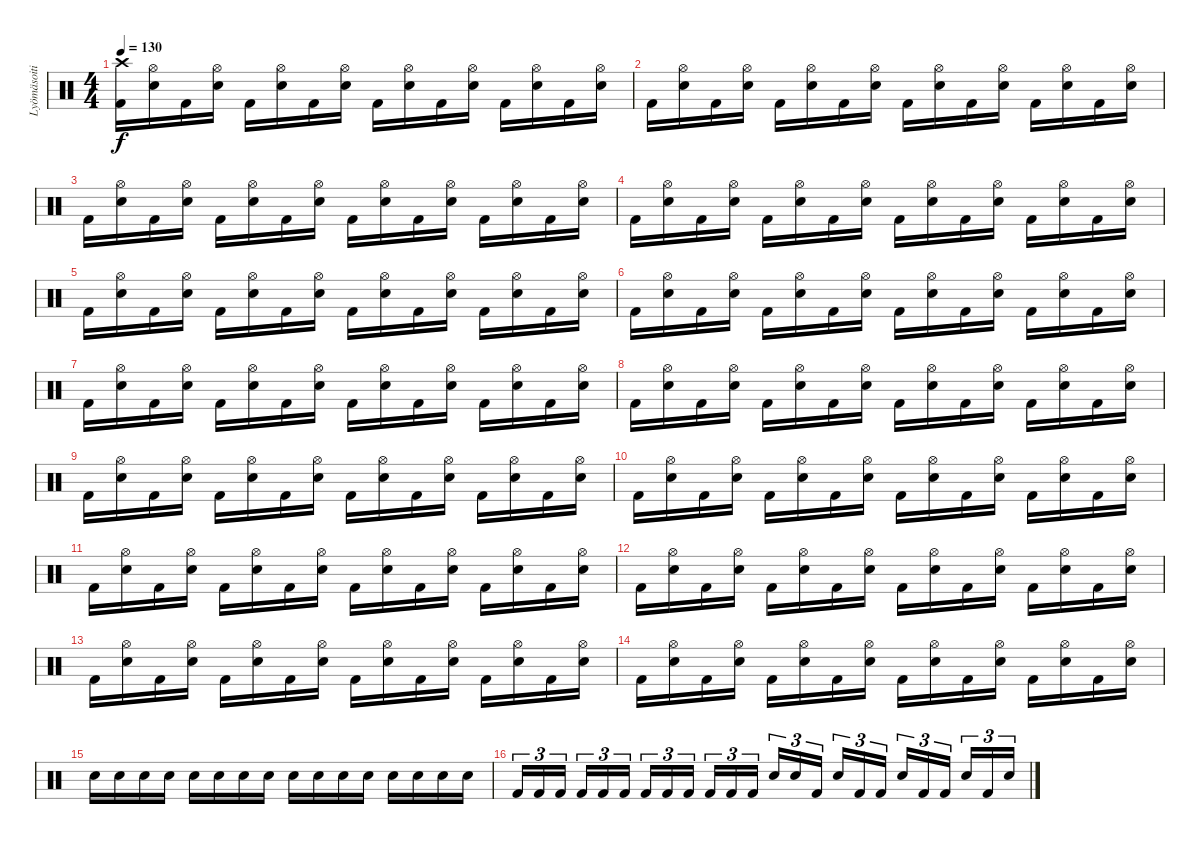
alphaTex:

\track ("Lyömäsoitin" "Lyömäsoiti") {instrument percussion}
\staff {score}
\articulation defaults
\ts (4 4)
\tempo 130
\clef neutral
\ks c
("Crash high (hit)" "Kick (hit) 2").16{dy f} ("Hi-Hat (open)" "Snare (hit) 2").16 "Kick (hit) 2".16 ("Hi-Hat (open)" "Snare (hit) 2").16 "Kick (hit) 2".16 ("Hi-Hat (open)" "Snare (hit) 2").16 "Kick (hit) 2".16 ("Hi-Hat (open)" "Snare (hit) 2").16 "Kick (hit) 2".16 ("Hi-Hat (open)" "Snare (hit) 2").16 "Kick (hit) 2".16 ("Hi-Hat (open)" "Snare (hit) 2").16 "Kick (hit) 2".16 ("Hi-Hat (open)" "Snare (hit) 2").16 "Kick (hit) 2".16 ("Hi-Hat (open)" "Snare (hit) 2").16 |
"Kick (hit) 2".16 ("Hi-Hat (open)" "Snare (hit) 2").16 "Kick (hit) 2".16 ("Hi-Hat (open)" "Snare (hit) 2").16 "Kick (hit) 2".16 ("Hi-Hat (open)" "Snare (hit) 2").16 "Kick (hit) 2".16 ("Hi-Hat (open)" "Snare (hit) 2").16 "Kick (hit) 2".16 ("Hi-Hat (open)" "Snare (hit) 2").16 "Kick (hit) 2".16 ("Hi-Hat (open)" "Snare (hit) 2").16 "Kick (hit) 2".16 ("Hi-Hat (open)" "Snare (hit) 2").16 "Kick (hit) 2".16 ("Hi-Hat (open)" "Snare (hit) 2").16 |
"Kick (hit) 2".16 ("Hi-Hat (open)" "Snare (hit) 2").16 "Kick (hit) 2".16 ("Hi-Hat (open)" "Snare (hit) 2").16 "Kick (hit) 2".16 ("Hi-Hat (open)" "Snare (hit) 2").16 "Kick (hit) 2".16 ("Hi-Hat (open)" "Snare (hit) 2").16 "Kick (hit) 2".16 ("Hi-Hat (open)" "Snare (hit) 2").16 "Kick (hit) 2".16 ("Hi-Hat (open)" "Snare (hit) 2").16 "Kick (hit) 2".16 ("Hi-Hat (open)" "Snare (hit) 2").16 "Kick (hit) 2".16 ("Hi-Hat (open)" "Snare (hit) 2").16 |
"Kick (hit) 2".16 ("Hi-Hat (open)" "Snare (hit) 2").16 "Kick (hit) 2".16 ("Hi-Hat (open)" "Snare (hit) 2").16 "Kick (hit) 2".16 ("Hi-Hat (open)" "Snare (hit) 2").16 "Kick (hit) 2".16 ("Hi-Hat (open)" "Snare (hit) 2").16 "Kick (hit) 2".16 ("Hi-Hat (open)" "Snare (hit) 2").16 "Kick (hit) 2".16 ("Hi-Hat (open)" "Snare (hit) 2").16 "Kick (hit) 2".16 ("Hi-Hat (open)" "Snare (hit) 2").16 "Kick (hit) 2".16 ("Hi-Hat (open)" "Snare (hit) 2").16 |
"Kick (hit) 2".16 ("Hi-Hat (open)" "Snare (hit) 2").16 "Kick (hit) 2".16 ("Hi-Hat (open)" "Snare (hit) 2").16 "Kick (hit) 2".16 ("Hi-Hat (open)" "Snare (hit) 2").16 "Kick (hit) 2".16 ("Hi-Hat (open)" "Snare (hit) 2").16 "Kick (hit) 2".16 ("Hi-Hat (open)" "Snare (hit) 2").16 "Kick (hit) 2".16 ("Hi-Hat (open)" "Snare (hit) 2").16 "Kick (hit) 2".16 ("Hi-Hat (open)" "Snare (hit) 2").16 "Kick (hit) 2".16 ("Hi-Hat (open)" "Snare (hit) 2").16 |
"Kick (hit) 2".16 ("Hi-Hat (open)" "Snare (hit) 2").16 "Kick (hit) 2".16 ("Hi-Hat (open)" "Snare (hit) 2").16 "Kick (hit) 2".16 ("Hi-Hat (open)" "Snare (hit) 2").16 "Kick (hit) 2".16 ("Hi-Hat (open)" "Snare (hit) 2").16 "Kick (hit) 2".16 ("Hi-Hat (open)" "Snare (hit) 2").16 "Kick (hit) 2".16 ("Hi-Hat (open)" "Snare (hit) 2").16 "Kick (hit) 2".16 ("Hi-Hat (open)" "Snare (hit) 2").16 "Kick (hit) 2".16 ("Hi-Hat (open)" "Snare (hit) 2").16 |
"Kick (hit) 2".16 ("Hi-Hat (open)" "Snare (hit) 2").16 "Kick (hit) 2".16 ("Hi-Hat (open)" "Snare (hit) 2").16 "Kick (hit) 2".16 ("Hi-Hat (open)" "Snare (hit) 2").16 "Kick (hit) 2".16 ("Hi-Hat (open)" "Snare (hit) 2").16 "Kick (hit) 2".16 ("Hi-Hat (open)" "Snare (hit) 2").16 "Kick (hit) 2".16 ("Hi-Hat (open)" "Snare (hit) 2").16 "Kick (hit) 2".16 ("Hi-Hat (open)" "Snare (hit) 2").16 "Kick (hit) 2".16 ("Hi-Hat (open)" "Snare (hit) 2").16 |
"Kick (hit) 2".16 ("Hi-Hat (open)" "Snare (hit) 2").16 "Kick (hit) 2".16 ("Hi-Hat (open)" "Snare (hit) 2").16 "Kick (hit) 2".16 ("Hi-Hat (open)" "Snare (hit) 2").16 "Kick (hit) 2".16 ("Hi-Hat (open)" "Snare (hit) 2").16 "Kick (hit) 2".16 ("Hi-Hat (open)" "Snare (hit) 2").16 "Kick (hit) 2".16 ("Hi-Hat (open)" "Snare (hit) 2").16 "Kick (hit) 2".16 ("Hi-Hat (open)" "Snare (hit) 2").16 "Kick (hit) 2".16 ("Hi-Hat (open)" "Snare (hit) 2").16 |
"Kick (hit) 2".16 ("Hi-Hat (open)" "Snare (hit) 2").16 "Kick (hit) 2".16 ("Hi-Hat (open)" "Snare (hit) 2").16 "Kick (hit) 2".16 ("Hi-Hat (open)" "Snare (hit) 2").16 "Kick (hit) 2".16 ("Hi-Hat (open)" "Snare (hit) 2").16 "Kick (hit) 2".16 ("Hi-Hat (open)" "Snare (hit) 2").16 "Kick (hit) 2".16 ("Hi-Hat (open)" "Snare (hit) 2").16 "Kick (hit) 2".16 ("Hi-Hat (open)" "Snare (hit) 2").16 "Kick (hit) 2".16 ("Hi-Hat (open)" "Snare (hit) 2").16 |
"Kick (hit) 2".16 ("Hi-Hat (open)" "Snare (hit) 2").16 "Kick (hit) 2".16 ("Hi-Hat (open)" "Snare (hit) 2").16 "Kick (hit) 2".16 ("Hi-Hat (open)" "Snare (hit) 2").16 "Kick (hit) 2".16 ("Hi-Hat (open)" "Snare (hit) 2").16 "Kick (hit) 2".16 ("Hi-Hat (open)" "Snare (hit) 2").16 "Kick (hit) 2".16 ("Hi-Hat (open)" "Snare (hit) 2").16 "Kick (hit) 2".16 ("Hi-Hat (open)" "Snare (hit) 2").16 "Kick (hit) 2".16 ("Hi-Hat (open)" "Snare (hit) 2").16 |
"Kick (hit) 2".16 ("Hi-Hat (open)" "Snare (hit) 2").16 "Kick (hit) 2".16 ("Hi-Hat (open)" "Snare (hit) 2").16 "Kick (hit) 2".16 ("Hi-Hat (open)" "Snare (hit) 2").16 "Kick (hit) 2".16 ("Hi-Hat (open)" "Snare (hit) 2").16 "Kick (hit) 2".16 ("Hi-Hat (open)" "Snare (hit) 2").16 "Kick (hit) 2".16 ("Hi-Hat (open)" "Snare (hit) 2").16 "Kick (hit) 2".16 ("Hi-Hat (open)" "Snare (hit) 2").16 "Kick (hit) 2".16 ("Hi-Hat (open)" "Snare (hit) 2").16 |
"Kick (hit) 2".16 ("Hi-Hat (open)" "Snare (hit) 2").16 "Kick (hit) 2".16 ("Hi-Hat (open)" "Snare (hit) 2").16 "Kick (hit) 2".16 ("Hi-Hat (open)" "Snare (hit) 2").16 "Kick (hit) 2".16 ("Hi-Hat (open)" "Snare (hit) 2").16 "Kick (hit) 2".16 ("Hi-Hat (open)" "Snare (hit) 2").16 "Kick (hit) 2".16 ("Hi-Hat (open)" "Snare (hit) 2").16 "Kick (hit) 2".16 ("Hi-Hat (open)" "Snare (hit) 2").16 "Kick (hit) 2".16 ("Hi-Hat (open)" "Snare (hit) 2").16 |
"Kick (hit) 2".16 ("Hi-Hat (open)" "Snare (hit) 2").16 "Kick (hit) 2".16 ("Hi-Hat (open)" "Snare (hit) 2").16 "Kick (hit) 2".16 ("Hi-Hat (open)" "Snare (hit) 2").16 "Kick (hit) 2".16 ("Hi-Hat (open)" "Snare (hit) 2").16 "Kick (hit) 2".16 ("Hi-Hat (open)" "Snare (hit) 2").16 "Kick (hit) 2".16 ("Hi-Hat (open)" "Snare (hit) 2").16 "Kick (hit) 2".16 ("Hi-Hat (open)" "Snare (hit) 2").16 "Kick (hit) 2".16 ("Hi-Hat (open)" "Snare (hit) 2").16 |
"Kick (hit) 2".16 ("Hi-Hat (open)" "Snare (hit) 2").16 "Kick (hit) 2".16 ("Hi-Hat (open)" "Snare (hit) 2").16 "Kick (hit) 2".16 ("Hi-Hat (open)" "Snare (hit) 2").16 "Kick (hit) 2".16 ("Hi-Hat (open)" "Snare (hit) 2").16 "Kick (hit) 2".16 ("Hi-Hat (open)" "Snare (hit) 2").16 "Kick (hit) 2".16 ("Hi-Hat (open)" "Snare (hit) 2").16 "Kick (hit) 2".16 ("Hi-Hat (open)" "Snare (hit) 2").16 "Kick (hit) 2".16 ("Hi-Hat (open)" "Snare (hit) 2").16 |
"Snare (hit) 2".16 "Snare (hit) 2".16 "Snare (hit) 2".16 "Snare (hit) 2".16 "Snare (hit) 2".16 "Snare (hit) 2".16 "Snare (hit) 2".16 "Snare (hit) 2".16 "Snare (hit) 2".16 "Snare (hit) 2".16 "Snare (hit) 2".16 "Snare (hit) 2".16 "Snare (hit) 2".16 "Snare (hit) 2".16 "Snare (hit) 2".16 "Snare (hit) 2".16 |
"Kick (hit) 2".16{tu (3 2)} "Kick (hit) 2".16{tu (3 2)} "Kick (hit) 2".16{tu (3 2)} "Kick (hit) 2".16{tu (3 2)} "Kick (hit) 2".16{tu (3 2)} "Kick (hit) 2".16{tu (3 2)} "Kick (hit) 2".16{tu (3 2)} "Kick (hit) 2".16{tu (3 2)} "Kick (hit) 2".16{tu (3 2)} "Kick (hit) 2".16{tu (3 2)} "Kick (hit) 2".16{tu (3 2)} "Kick (hit) 2".16{tu (3 2)} "Snare (hit) 2".16{tu (3 2)} "Snare (hit) 2".16{tu (3 2)} "Kick (hit) 2".16{tu (3 2)} "Snare (hit) 2".16{tu (3 2)} "Kick (hit) 2".16{tu (3 2)} "Kick (hit) 2".16{tu (3 2)} "Snare (hit) 2".16{tu (3 2)} "Kick (hit) 2".16{tu (3 2)} "Kick (hit) 2".16{tu (3 2)} "Snare (hit) 2".16{tu (3 2)} "Kick (hit) 2".16{tu (3 2)} "Snare (hit) 2".16{tu (3 2)}
